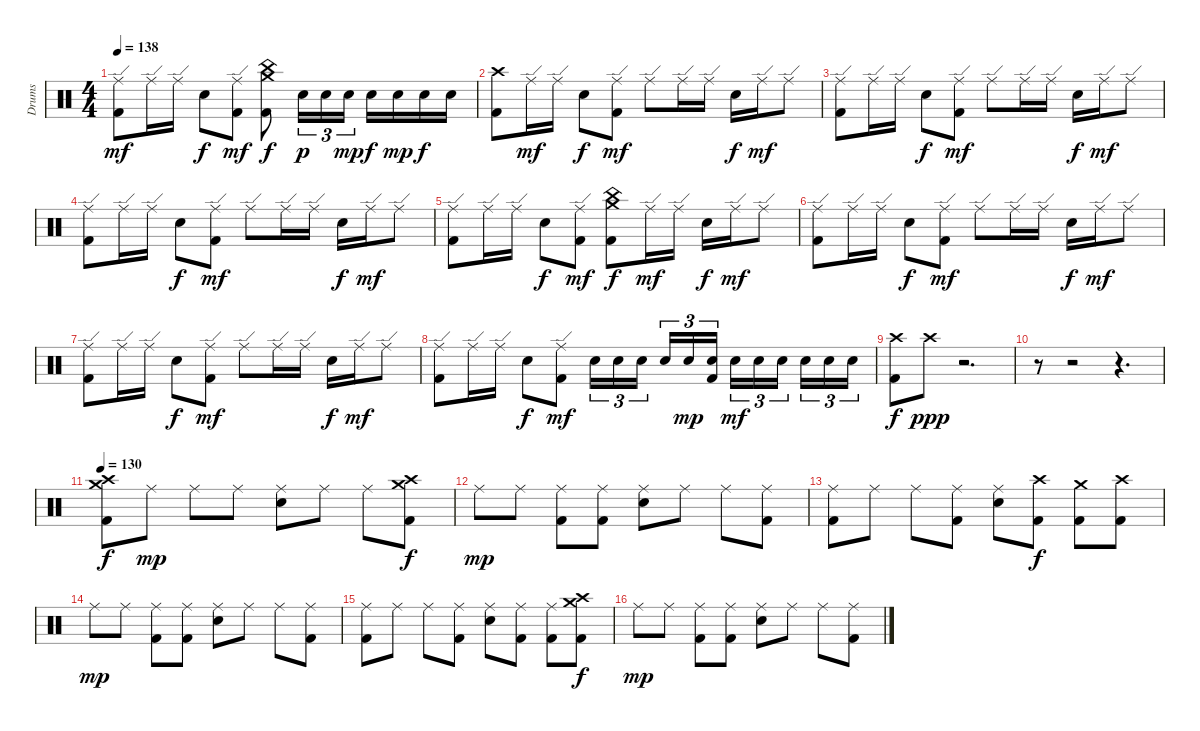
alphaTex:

\bracketExtendMode groupsimilarinstruments
\otherSystemsTrackNameOrientation horizontal
\track ("Drumkit" "Drums") {instrument percussion}
\staff {score}
\articulation defaults
\ts (4 4)
\tempo 138
\clef neutral
\ks c
("Ride (edge)" "Kick (hit) 2").8{dy mf beam Down} "Ride (edge)".16{beam Down} "Ride (edge)".16{beam Down} "Snare (hit) 2".8{dy f beam Down} ("Ride (edge)" "Kick (hit) 2").8{dy mf beam Down} ("Crash medium (hit)" "China (hit)" "Kick (hit) 2").8{dy f beam Down} "Snare (hit) 2".16{tu (3 2) dy p beam Down} "Snare (hit) 2".16{tu (3 2) beam Down} "Snare (hit) 2".16{tu (3 2) dy mp beam Down} "Snare (hit) 2".16{dy f beam Down} "Snare (hit) 2".16{dy mp beam Down} "Snare (hit) 2".16{dy f beam Down} "Snare (hit) 2".16{beam Down} |
("Crash high (hit)" "Kick (hit) 2").8{beam Down} "Ride (edge)".16{dy mf beam Down} "Ride (edge)".16{beam Down} "Snare (hit) 2".8{dy f beam Down} ("Ride (edge)" "Kick (hit) 2").8{dy mf beam Down} "Ride (edge)".8{beam Down} "Ride (edge)".16{beam Down} "Ride (edge)".16{beam Down} "Snare (hit) 2".16{dy f beam Down} "Ride (edge)".16{dy mf beam Down} "Ride (edge)".8{beam Down} |
("Ride (edge)" "Kick (hit) 2").8{beam Down} "Ride (edge)".16{beam Down} "Ride (edge)".16{beam Down} "Snare (hit) 2".8{dy f beam Down} ("Ride (edge)" "Kick (hit) 2").8{dy mf beam Down} "Ride (edge)".8{beam Down} "Ride (edge)".16{beam Down} "Ride (edge)".16{beam Down} "Snare (hit) 2".16{dy f beam Down} "Ride (edge)".16{dy mf beam Down} "Ride (edge)".8{beam Down} |
("Ride (edge)" "Kick (hit) 2").8{beam Down} "Ride (edge)".16{beam Down} "Ride (edge)".16{beam Down} "Snare (hit) 2".8{dy f beam Down} ("Ride (edge)" "Kick (hit) 2").8{dy mf beam Down} "Ride (edge)".8{beam Down} "Ride (edge)".16{beam Down} "Ride (edge)".16{beam Down} "Snare (hit) 2".16{dy f beam Down} "Ride (edge)".16{dy mf beam Down} "Ride (edge)".8{beam Down} |
("Ride (edge)" "Kick (hit) 2").8{beam Down} "Ride (edge)".16{beam Down} "Ride (edge)".16{beam Down} "Snare (hit) 2".8{dy f beam Down} ("Ride (edge)" "Kick (hit) 2").8{dy mf beam Down} ("Crash medium (hit)" "China (hit)" "Kick (hit) 2").8{dy f beam Down} "Ride (edge)".16{dy mf beam Down} "Ride (edge)".16{beam Down} "Snare (hit) 2".16{dy f beam Down} "Ride (edge)".16{dy mf beam Down} "Ride (edge)".8{beam Down} |
("Ride (edge)" "Kick (hit) 2").8{beam Down} "Ride (edge)".16{beam Down} "Ride (edge)".16{beam Down} "Snare (hit) 2".8{dy f beam Down} ("Ride (edge)" "Kick (hit) 2").8{dy mf beam Down} "Ride (edge)".8{beam Down} "Ride (edge)".16{beam Down} "Ride (edge)".16{beam Down} "Snare (hit) 2".16{dy f beam Down} "Ride (edge)".16{dy mf beam Down} "Ride (edge)".8{beam Down} |
("Ride (edge)" "Kick (hit) 2").8{beam Down} "Ride (edge)".16{beam Down} "Ride (edge)".16{beam Down} "Snare (hit) 2".8{dy f beam Down} ("Ride (edge)" "Kick (hit) 2").8{dy mf beam Down} "Ride (edge)".8{beam Down} "Ride (edge)".16{beam Down} "Ride (edge)".16{beam Down} "Snare (hit) 2".16{dy f beam Down} "Ride (edge)".16{dy mf beam Down} "Ride (edge)".8{beam Down} |
("Ride (edge)" "Kick (hit) 2").8{beam Down} "Ride (edge)".16{beam Down} "Ride (edge)".16{beam Down} "Snare (hit) 2".8{dy f beam Down} ("Ride (edge)" "Kick (hit) 2").8{dy mf beam Down} "Snare (hit) 2".16{tu (3 2) beam Down} "Snare (hit) 2".16{tu (3 2) beam Down} "Snare (hit) 2".16{tu (3 2) beam Down} "Snare (hit) 2".16{tu (3 2) beam Up} "Snare (hit) 2".16{tu (3 2) dy mp beam Up} ("Snare (hit) 2" "Kick (hit) 2").16{tu (3 2) beam Up} "Snare (hit) 2".16{tu (3 2) dy mf beam Down} "Snare (hit) 2".16{tu (3 2) beam Down} "Snare (hit) 2".16{tu (3 2) beam Down} "Snare (hit) 2".16{tu (3 2) beam Down} "Snare (hit) 2".16{tu (3 2) beam Down} "Snare (hit) 2".16{tu (3 2) beam Down} |
("Crash high (hit)" "Kick (hit) 2").8{dy f beam Down} "Crash high (hit)".8{dy ppp beam Down} r.2{d beam Down} |
r.8{beam Down} r.2{beam Down} r.4{d beam Down} |
\tempo 130
("Crash high (hit)" "Crash medium (hit)" "Kick (hit) 2").8{dy f beam Down} "Ride (middle)".8{dy mp beam Down} "Ride (middle)".8{beam Down} "Ride (middle)".8{beam Down} ("Ride (middle)" "Snare (hit) 2").8{beam Down} "Ride (middle)".8{beam Down} "Ride (middle)".8{beam Down} ("Crash high (hit)" "Crash medium (hit)" "Kick (hit) 2").8{dy f beam Down} |
"Ride (middle)".8{dy mp beam Down} "Ride (middle)".8{beam Down} ("Ride (middle)" "Kick (hit) 2").8{beam Down} ("Ride (middle)" "Kick (hit) 2").8{beam Down} ("Ride (middle)" "Snare (hit) 2").8{beam Down} "Ride (middle)".8{beam Down} "Ride (middle)".8{beam Down} ("Ride (middle)" "Kick (hit) 2").8{beam Down} |
("Ride (middle)" "Kick (hit) 2").8{beam Down} "Ride (middle)".8{beam Down} "Ride (middle)".8{beam Down} ("Ride (middle)" "Kick (hit) 2").8{beam Down} ("Ride (middle)" "Snare (hit) 2").8{beam Down} ("Crash high (hit)" "Kick (hit) 2").8{dy f beam Down} ("Crash medium (hit)" "Kick (hit) 2").8{beam Down} ("Crash high (hit)" "Kick (hit) 2").8{beam Down} |
"Ride (middle)".8{dy mp beam Down} "Ride (middle)".8{beam Down} ("Ride (middle)" "Kick (hit) 2").8{beam Down} ("Ride (middle)" "Kick (hit) 2").8{beam Down} ("Ride (middle)" "Snare (hit) 2").8{beam Down} "Ride (middle)".8{beam Down} "Ride (middle)".8{beam Down} ("Ride (middle)" "Kick (hit) 2").8{beam Down} |
("Ride (middle)" "Kick (hit) 2").8{beam Down} "Ride (middle)".8{beam Down} "Ride (middle)".8{beam Down} ("Ride (middle)" "Kick (hit) 2").8{beam Down} ("Ride (middle)" "Snare (hit) 2").8{beam Down} ("Ride (middle)" "Kick (hit) 2").8{beam Down} ("Ride (middle)" "Kick (hit) 2").8{beam Down} ("Crash high (hit)" "Crash medium (hit)" "Kick (hit) 2").8{dy f beam Down} |
"Ride (middle)".8{dy mp beam Down} "Ride (middle)".8{beam Down} ("Ride (middle)" "Kick (hit) 2").8{beam Down} ("Ride (middle)" "Kick (hit) 2").8{beam Down} ("Ride (middle)" "Snare (hit) 2").8{beam Down} "Ride (middle)".8{beam Down} "Ride (middle)".8{beam Down} ("Ride (middle)" "Kick (hit) 2").8{beam Down}
